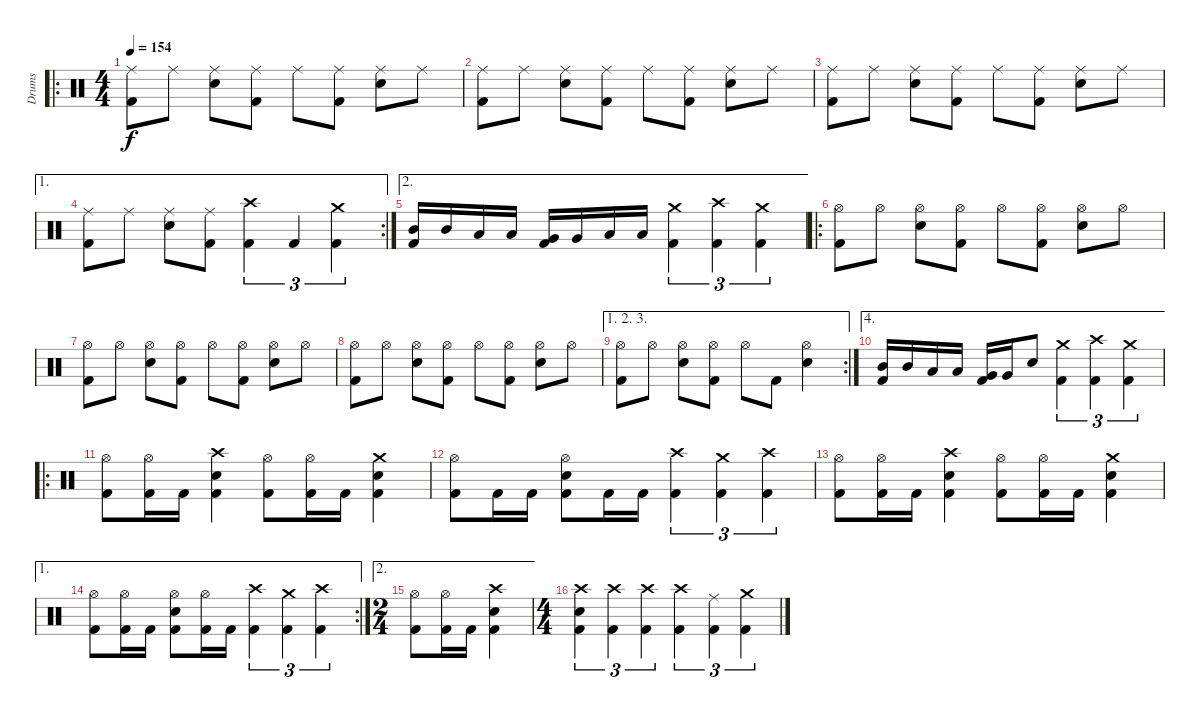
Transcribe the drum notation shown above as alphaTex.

\track ("Drums" "Drums") {instrument percussion}
\staff {score}
\articulation defaults
\ro
\ts (4 4)
\tempo 154
\clef neutral
\ks c
("Ride (middle)" "Kick (hit) 2").8{dy f} "Ride (middle)".8 ("Ride (middle)" "Snare (hit) 2").8 ("Ride (middle)" "Kick (hit) 2").8 "Ride (middle)".8 ("Ride (middle)" "Kick (hit) 2").8 ("Ride (middle)" "Snare (hit) 2").8 "Ride (middle)".8 |
("Ride (middle)" "Kick (hit) 2").8 "Ride (middle)".8 ("Ride (middle)" "Snare (hit) 2").8 ("Ride (middle)" "Kick (hit) 2").8 "Ride (middle)".8 ("Ride (middle)" "Kick (hit) 2").8 ("Ride (middle)" "Snare (hit) 2").8 "Ride (middle)".8 |
("Ride (middle)" "Kick (hit) 2").8 "Ride (middle)".8 ("Ride (middle)" "Snare (hit) 2").8 ("Ride (middle)" "Kick (hit) 2").8 "Ride (middle)".8 ("Ride (middle)" "Kick (hit) 2").8 ("Ride (middle)" "Snare (hit) 2").8 "Ride (middle)".8 |
\ae 1
\rc 2
("Ride (middle)" "Kick (hit) 2").8 "Ride (middle)".8 ("Ride (middle)" "Snare (hit) 2").8 ("Ride (middle)" "Kick (hit) 2").8 ("Crash high (hit)" "Kick (hit) 2").4{tu (3 2)} "Kick (hit) 2".4{tu (3 2)} ("Crash medium (hit)" "Kick (hit) 2").4{tu (3 2)} |
\ae 2
("Mid Tom (hit)" "Kick (hit) 2").16 "Mid Tom (hit)".16 "Low Tom (hit)".16 "Low Tom (hit)".16 ("Very Low Tom (hit)" "Kick (hit) 2").16 "Very Low Tom (hit)".16 "Low Floor Tom (hit)".16 "Low Floor Tom (hit)".16 ("Crash medium (hit)" "Kick (hit) 2").4{tu (3 2)} ("Crash high (hit)" "Kick (hit) 2").4{tu (3 2)} ("Crash medium (hit)" "Kick (hit) 2").4{tu (3 2)} |
\ro
("Hi-Hat (open)" "Kick (hit) 2").8 "Hi-Hat (open)".8 ("Hi-Hat (open)" "Snare (hit) 2").8 ("Hi-Hat (open)" "Kick (hit) 2").8 "Hi-Hat (open)".8 ("Hi-Hat (open)" "Kick (hit) 2").8 ("Hi-Hat (open)" "Snare (hit) 2").8 "Hi-Hat (open)".8 |
("Hi-Hat (open)" "Kick (hit) 2").8 "Hi-Hat (open)".8 ("Hi-Hat (open)" "Snare (hit) 2").8 ("Hi-Hat (open)" "Kick (hit) 2").8 "Hi-Hat (open)".8 ("Hi-Hat (open)" "Kick (hit) 2").8 ("Hi-Hat (open)" "Snare (hit) 2").8 "Hi-Hat (open)".8 |
("Hi-Hat (open)" "Kick (hit) 2").8 "Hi-Hat (open)".8 ("Hi-Hat (open)" "Snare (hit) 2").8 ("Hi-Hat (open)" "Kick (hit) 2").8 "Hi-Hat (open)".8 ("Hi-Hat (open)" "Kick (hit) 2").8 ("Hi-Hat (open)" "Snare (hit) 2").8 "Hi-Hat (open)".8 |
\ae (1 2 3)
\rc 2
("Hi-Hat (open)" "Kick (hit) 2").8 "Hi-Hat (open)".8 ("Hi-Hat (open)" "Snare (hit) 2").8 ("Hi-Hat (open)" "Kick (hit) 2").8 "Hi-Hat (open)".8 "Kick (hit) 2".8 ("Hi-Hat (open)" "Snare (hit) 2").4 |
\ae 4
("Mid Tom (hit)" "Kick (hit) 2").16 "Mid Tom (hit)".16 "Low Tom (hit)".16 "Low Tom (hit)".16 ("Very Low Tom (hit)" "Kick (hit) 2").16 "Very Low Tom (hit)".16 "Snare (hit) 2".8 ("Crash medium (hit)" "Kick (hit) 2").4{tu (3 2)} ("Crash high (hit)" "Kick (hit) 2").4{tu (3 2)} ("Crash medium (hit)" "Kick (hit) 2").4{tu (3 2)} |
\ro
("Hi-Hat (open)" "Kick (hit) 2").8 ("Hi-Hat (open)" "Kick (hit) 2").16 "Kick (hit) 2".16 ("Crash high (hit)" "Snare (hit) 2" "Kick (hit) 2").4 ("Hi-Hat (open)" "Kick (hit) 2").8 ("Hi-Hat (open)" "Kick (hit) 2").16 "Kick (hit) 2".16 ("Crash medium (hit)" "Snare (hit) 2" "Kick (hit) 2").4 |
("Hi-Hat (open)" "Kick (hit) 2").8 "Kick (hit) 2".16 "Kick (hit) 2".16 ("Hi-Hat (open)" "Snare (hit) 2" "Kick (hit) 2").8 "Kick (hit) 2".16 "Kick (hit) 2".16 ("Crash high (hit)" "Kick (hit) 2").4{tu (3 2)} ("Crash medium (hit)" "Kick (hit) 2").4{tu (3 2)} ("Crash high (hit)" "Kick (hit) 2").4{tu (3 2)} |
("Hi-Hat (open)" "Kick (hit) 2").8 ("Hi-Hat (open)" "Kick (hit) 2").16 "Kick (hit) 2".16 ("Crash high (hit)" "Snare (hit) 2" "Kick (hit) 2").4 ("Hi-Hat (open)" "Kick (hit) 2").8 ("Hi-Hat (open)" "Kick (hit) 2").16 "Kick (hit) 2".16 ("Crash medium (hit)" "Snare (hit) 2" "Kick (hit) 2").4 |
\ae 1
\rc 2
("Hi-Hat (open)" "Kick (hit) 2").8 ("Hi-Hat (open)" "Kick (hit) 2").16 "Kick (hit) 2".16 ("Hi-Hat (open)" "Snare (hit) 2" "Kick (hit) 2").8 ("Hi-Hat (open)" "Kick (hit) 2").16 "Kick (hit) 2".16 ("Crash high (hit)" "Kick (hit) 2").4{tu (3 2)} ("Crash medium (hit)" "Kick (hit) 2").4{tu (3 2)} ("Crash high (hit)" "Kick (hit) 2").4{tu (3 2)} |
\ae 2
\ts (2 4)
("Hi-Hat (open)" "Kick (hit) 2").8 ("Hi-Hat (open)" "Kick (hit) 2").16 "Kick (hit) 2".16 ("Crash high (hit)" "Snare (hit) 2" "Kick (hit) 2").4 |
\ts (4 4)
("Crash high (hit)" "Snare (hit) 2" "Kick (hit) 2").4{tu (3 2)} ("Crash high (hit)" "Kick (hit) 2").4{tu (3 2)} ("Crash high (hit)" "Kick (hit) 2").4{tu (3 2)} ("Crash high (hit)" "Kick (hit) 2").4{tu (3 2)} ("Ride (middle)" "Kick (hit) 2").4{tu (3 2)} ("Crash medium (hit)" "Kick (hit) 2").4{tu (3 2)}
